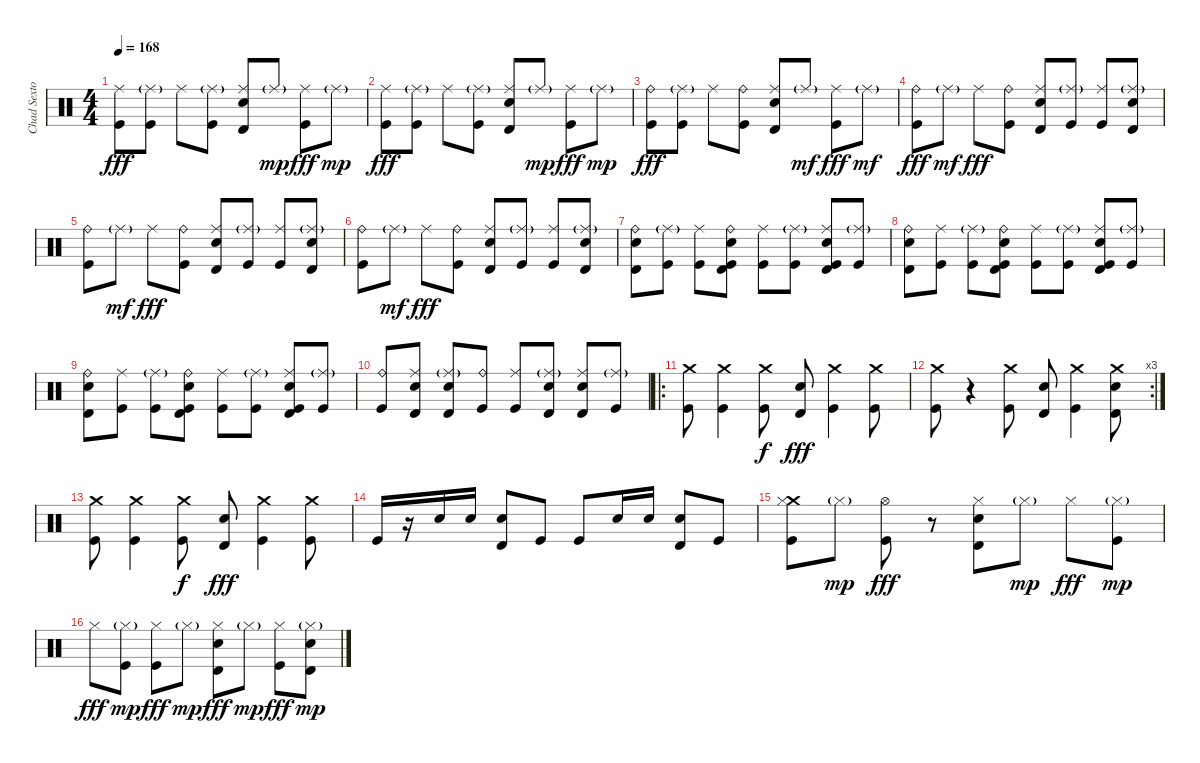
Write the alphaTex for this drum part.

\track ("Chad Sexton" "Chad Sexto") {instrument percussion}
\staff {score}
\articulation defaults
\ts (4 4)
\tempo 168
\clef neutral
\ks c
("Ride (middle)" "Kick (hit)").8{dy fff} ("Ride (middle)"{g} "Kick (hit)").8 "Ride (middle)".8 ("Ride (middle)"{g} "Kick (hit)").8 ("Ride (middle)" "Electric Snare (hit)" "Timbale high (hit)").8 "Ride (middle)"{g}.8{dy mp} ("Ride (middle)" "Kick (hit)").8{dy fff} "Ride (middle)"{g}.8{dy mp} |
("Ride (middle)" "Kick (hit)").8{dy fff} ("Ride (middle)"{g} "Kick (hit)").8 "Ride (middle)".8 ("Ride (middle)"{g} "Kick (hit)").8 ("Ride (middle)" "Electric Snare (hit)" "Timbale high (hit)").8 "Ride (middle)"{g}.8{dy mp} ("Ride (middle)" "Kick (hit)").8{dy fff} "Ride (middle)"{g}.8{dy mp} |
("Ride (bell)" "Kick (hit)").8{dy fff} ("Ride (middle)"{g} "Kick (hit)").8 "Ride (middle)".8 ("Ride (bell)" "Kick (hit)").8 ("Ride (middle)" "Electric Snare (hit)" "Timbale high (hit)").8 "Ride (middle)"{g}.8{dy mf} ("Ride (middle)" "Kick (hit)").8{dy fff} "Ride (middle)"{g}.8{dy mf} |
("Ride (bell)" "Kick (hit)").8{dy fff} "Ride (middle)"{g}.8{dy mf} "Ride (middle)".8{dy fff} ("Ride (bell)" "Kick (hit)").8 ("Ride (middle)" "Electric Snare (hit)" "Timbale high (hit)").8 ("Ride (middle)"{g} "Kick (hit)").8 ("Ride (middle)" "Kick (hit)").8 ("Ride (middle)"{g} "Electric Snare (hit)" "Timbale high (hit)").8 |
("Ride (bell)" "Kick (hit)").8 "Ride (middle)"{g}.8{dy mf} "Ride (middle)".8{dy fff} ("Ride (bell)" "Kick (hit)").8 ("Ride (middle)" "Electric Snare (hit)" "Timbale high (hit)").8 ("Ride (middle)"{g} "Kick (hit)").8 ("Ride (middle)" "Kick (hit)").8 ("Ride (middle)"{g} "Electric Snare (hit)" "Timbale high (hit)").8 |
("Ride (bell)" "Kick (hit)").8 "Ride (middle)"{g}.8{dy mf} "Ride (middle)".8{dy fff} ("Ride (bell)" "Kick (hit)").8 ("Ride (middle)" "Electric Snare (hit)" "Timbale high (hit)").8 ("Ride (middle)"{g} "Kick (hit)").8 ("Ride (middle)" "Kick (hit)").8 ("Ride (middle)"{g} "Electric Snare (hit)" "Timbale high (hit)").8 |
("Ride (bell)" "Electric Snare (hit)" "Timbale high (hit)").8 ("Ride (middle)"{g} "Kick (hit)").8 ("Ride (middle)" "Kick (hit)").8 ("Timbale high (hit)" "Ride (bell)" "Electric Snare (hit)" "Kick (hit)").8 ("Ride (middle)" "Kick (hit)").8 ("Ride (middle)"{g} "Kick (hit)").8 ("Timbale high (hit)" "Ride (middle)" "Electric Snare (hit)" "Kick (hit)").8 ("Ride (middle)"{g} "Kick (hit)").8 |
("Ride (bell)" "Electric Snare (hit)" "Timbale high (hit)").8 ("Ride (middle)" "Kick (hit)").8 ("Ride (middle)"{g} "Kick (hit)").8 ("Timbale high (hit)" "Ride (bell)" "Electric Snare (hit)" "Kick (hit)").8 ("Ride (middle)" "Kick (hit)").8 ("Ride (middle)"{g} "Kick (hit)").8 ("Timbale high (hit)" "Ride (middle)" "Electric Snare (hit)" "Kick (hit)").8 ("Ride (middle)"{g} "Kick (hit)").8 |
("Ride (bell)" "Electric Snare (hit)" "Timbale high (hit)").8 ("Ride (middle)" "Kick (hit)").8 ("Ride (middle)"{g} "Kick (hit)").8 ("Timbale high (hit)" "Ride (bell)" "Electric Snare (hit)" "Kick (hit)").8 ("Ride (middle)" "Kick (hit)").8 ("Ride (middle)"{g} "Kick (hit)").8 ("Timbale high (hit)" "Ride (middle)" "Electric Snare (hit)" "Kick (hit)").8 ("Ride (middle)"{g} "Kick (hit)").8 |
("Ride (bell)" "Kick (hit)").8 ("Ride (middle)" "Electric Snare (hit)" "Timbale high (hit)").8 ("Ride (middle)"{g} "Electric Snare (hit)" "Timbale high (hit)").8 ("Ride (bell)" "Kick (hit)").8 ("Ride (middle)" "Kick (hit)").8 ("Ride (middle)"{g} "Electric Snare (hit)" "Timbale high (hit)").8 ("Ride (middle)" "Electric Snare (hit)" "Timbale high (hit)").8 ("Ride (middle)"{g} "Kick (hit)").8 |
\ro
("Crash medium (hit)" "Kick (hit)").8 ("Crash medium (hit)" "Kick (hit)").4 ("Crash medium (hit)" "Kick (hit)").8{dy f} ("Electric Snare (hit)" "Timbale high (hit)").8{dy fff} ("Crash medium (hit)" "Kick (hit)").4 ("Crash medium (hit)" "Kick (hit)").8 |
\rc 3
("Crash medium (hit)" "Kick (hit)").8 r.4 ("Crash medium (hit)" "Kick (hit)").8 ("Electric Snare (hit)" "Timbale high (hit)").8 ("Crash medium (hit)" "Kick (hit)").4 ("Crash medium (hit)" "Electric Snare (hit)" "Timbale high (hit)").8 |
("Crash medium (hit)" "Kick (hit)").8 ("Crash medium (hit)" "Kick (hit)").4 ("Crash medium (hit)" "Kick (hit)").8{dy f} ("Electric Snare (hit)" "Timbale high (hit)").8{dy fff} ("Crash medium (hit)" "Kick (hit)").4 ("Crash medium (hit)" "Kick (hit)").8 |
"Kick (hit)".16 r.16 "Electric Snare (hit)".16 "Electric Snare (hit)".16 ("Electric Snare (hit)" "Timbale high (hit)").8 "Kick (hit)".8 "Kick (hit)".8 "Electric Snare (hit)".16 "Electric Snare (hit)".16 ("Electric Snare (hit)" "Timbale high (hit)").8 "Kick (hit)".8 |
("Crash medium (hit)" "Kick (hit)" "Hi-Hat (closed)").8 "Hi-Hat (closed)"{g}.8{dy mp} ("Kick (hit)" "Hi-Hat (open)").8{dy fff} r.8 ("Electric Snare (hit)" "Timbale high (hit)" "Hi-Hat (closed)").8 "Hi-Hat (closed)"{g}.8{dy mp} "Hi-Hat (closed)".8{dy fff} ("Kick (hit)" "Hi-Hat (closed)"{g}).8{dy mp} |
"Hi-Hat (closed)".8{dy fff} ("Kick (hit)" "Hi-Hat (closed)"{g}).8{dy mp} ("Kick (hit)" "Hi-Hat (closed)").8{dy fff} "Hi-Hat (closed)"{g}.8{dy mp} ("Electric Snare (hit)" "Timbale high (hit)" "Hi-Hat (closed)").8{dy fff} "Hi-Hat (closed)"{g}.8{dy mp} ("Kick (hit)" "Hi-Hat (closed)").8{dy fff} ("Electric Snare (hit)" "Timbale high (hit)" "Hi-Hat (closed)"{g}).8{dy mp}
